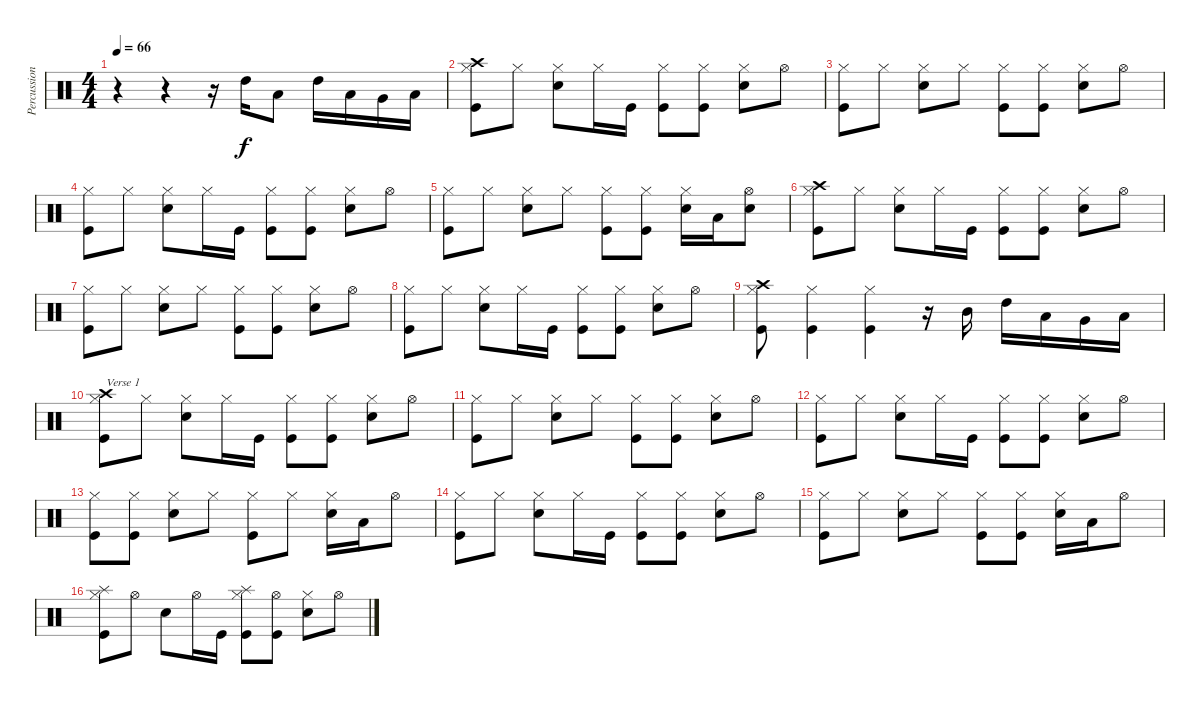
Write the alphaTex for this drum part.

\track ("Percussion" "Percussion") {instrument percussion}
\staff {score}
\articulation defaults
\ts (4 4)
\tempo 66
\clef neutral
\ks c
r.4{dy f} r.4 r.16 "High Tom (hit)".16 "Low Tom (hit)".8 "High Tom (hit)".16 "Low Tom (hit)".16 "Very Low Tom (hit)".16 "Low Floor Tom (hit)".16 |
("Hi-Hat (closed)" "Kick (hit)" "Crash high (hit)").8 "Hi-Hat (closed)".8 ("Hi-Hat (closed)" "Electric Snare (hit)").8 "Hi-Hat (closed)".16 "Kick (hit)".16 ("Hi-Hat (closed)" "Kick (hit)").8 ("Hi-Hat (closed)" "Kick (hit)").8 ("Hi-Hat (closed)" "Electric Snare (hit)").8 "Hi-Hat (open)".8 |
("Hi-Hat (closed)" "Kick (hit)").8 "Hi-Hat (closed)".8 ("Hi-Hat (closed)" "Electric Snare (hit)").8 "Hi-Hat (closed)".8 ("Hi-Hat (closed)" "Kick (hit)").8 ("Hi-Hat (closed)" "Kick (hit)").8 ("Hi-Hat (closed)" "Electric Snare (hit)").8 "Hi-Hat (open)".8 |
("Hi-Hat (closed)" "Kick (hit)").8 "Hi-Hat (closed)".8 ("Hi-Hat (closed)" "Electric Snare (hit)").8 "Hi-Hat (closed)".16 "Kick (hit)".16 ("Hi-Hat (closed)" "Kick (hit)").8 ("Hi-Hat (closed)" "Kick (hit)").8 ("Hi-Hat (closed)" "Electric Snare (hit)").8 "Hi-Hat (open)".8 |
("Hi-Hat (closed)" "Kick (hit)").8 "Hi-Hat (closed)".8 ("Hi-Hat (closed)" "Electric Snare (hit)").8 "Hi-Hat (closed)".8 ("Hi-Hat (closed)" "Kick (hit)").8 ("Hi-Hat (closed)" "Kick (hit)").8 ("Hi-Hat (closed)" "Electric Snare (hit)").16 "Low Tom (hit)".16 ("Hi-Hat (open)" "Electric Snare (hit)").8 |
("Hi-Hat (closed)" "Kick (hit)" "Crash high (hit)").8 "Hi-Hat (closed)".8 ("Hi-Hat (closed)" "Electric Snare (hit)").8 "Hi-Hat (closed)".16 "Kick (hit)".16 ("Hi-Hat (closed)" "Kick (hit)").8 ("Hi-Hat (closed)" "Kick (hit)").8 ("Hi-Hat (closed)" "Electric Snare (hit)").8 "Hi-Hat (open)".8 |
("Hi-Hat (closed)" "Kick (hit)").8 "Hi-Hat (closed)".8 ("Hi-Hat (closed)" "Electric Snare (hit)").8 "Hi-Hat (closed)".8 ("Hi-Hat (closed)" "Kick (hit)").8 ("Hi-Hat (closed)" "Kick (hit)").8 ("Hi-Hat (closed)" "Electric Snare (hit)").8 "Hi-Hat (open)".8 |
("Hi-Hat (closed)" "Kick (hit)").8 "Hi-Hat (closed)".8 ("Hi-Hat (closed)" "Electric Snare (hit)").8 "Hi-Hat (closed)".16 "Kick (hit)".16 ("Hi-Hat (closed)" "Kick (hit)").8 ("Hi-Hat (closed)" "Kick (hit)").8 ("Hi-Hat (closed)" "Electric Snare (hit)").8 "Hi-Hat (open)".8 |
("Hi-Hat (closed)" "Kick (hit)" "Crash high (hit)").8 ("Hi-Hat (closed)" "Kick (hit)").4 ("Hi-Hat (closed)" "Kick (hit)").4 r.16 "Mid Tom (hit)".16 "High Tom (hit)".16 "Low Tom (hit)".16 "Very Low Tom (hit)".16 "Low Floor Tom (hit)".16 |
("Hi-Hat (closed)" "Kick (hit)" "Crash high (hit)").8{txt "Verse 1"} "Hi-Hat (closed)".8 ("Hi-Hat (closed)" "Electric Snare (hit)").8 "Hi-Hat (closed)".16 "Kick (hit)".16 ("Hi-Hat (closed)" "Kick (hit)").8 ("Hi-Hat (closed)" "Kick (hit)").8 ("Hi-Hat (closed)" "Electric Snare (hit)").8 "Hi-Hat (open)".8 |
("Hi-Hat (closed)" "Kick (hit)").8 "Hi-Hat (closed)".8 ("Hi-Hat (closed)" "Electric Snare (hit)").8 "Hi-Hat (closed)".8 ("Hi-Hat (closed)" "Kick (hit)").8 ("Hi-Hat (closed)" "Kick (hit)").8 ("Hi-Hat (closed)" "Electric Snare (hit)").8 "Hi-Hat (open)".8 |
("Hi-Hat (closed)" "Kick (hit)").8 "Hi-Hat (closed)".8 ("Hi-Hat (closed)" "Electric Snare (hit)").8 "Hi-Hat (closed)".16 "Kick (hit)".16 ("Hi-Hat (closed)" "Kick (hit)").8 ("Hi-Hat (closed)" "Kick (hit)").8 ("Hi-Hat (closed)" "Electric Snare (hit)").8 "Hi-Hat (open)".8 |
("Hi-Hat (closed)" "Kick (hit)").8 ("Hi-Hat (closed)" "Kick (hit)").8 ("Hi-Hat (closed)" "Electric Snare (hit)").8 "Hi-Hat (closed)".8 ("Hi-Hat (closed)" "Kick (hit)").8 "Hi-Hat (closed)".8 ("Hi-Hat (closed)" "Electric Snare (hit)").16 "Low Tom (hit)".16 "Hi-Hat (open)".8 |
("Hi-Hat (closed)" "Kick (hit)").8 "Hi-Hat (closed)".8 ("Hi-Hat (closed)" "Electric Snare (hit)").8 "Hi-Hat (closed)".16 "Kick (hit)".16 ("Hi-Hat (closed)" "Kick (hit)").8 ("Hi-Hat (closed)" "Kick (hit)").8 ("Hi-Hat (closed)" "Electric Snare (hit)").8 "Hi-Hat (open)".8 |
("Hi-Hat (closed)" "Kick (hit)").8 "Hi-Hat (closed)".8 ("Hi-Hat (closed)" "Electric Snare (hit)").8 "Hi-Hat (closed)".8 ("Hi-Hat (closed)" "Kick (hit)").8 ("Hi-Hat (closed)" "Kick (hit)").8 ("Hi-Hat (closed)" "Electric Snare (hit)").16 "Low Tom (hit)".16 "Hi-Hat (open)".8 |
("Hi-Hat (closed)" "Kick (hit)" "Splash (hit)").8 "Hi-Hat (open)".8 "Electric Snare (hit)".8 "Hi-Hat (open)".16 "Kick (hit)".16 ("Hi-Hat (closed)" "Kick (hit)" "Splash (hit)").8 ("Hi-Hat (open)" "Kick (hit)").8 ("Hi-Hat (closed)" "Electric Snare (hit)").8 "Hi-Hat (open)".8
